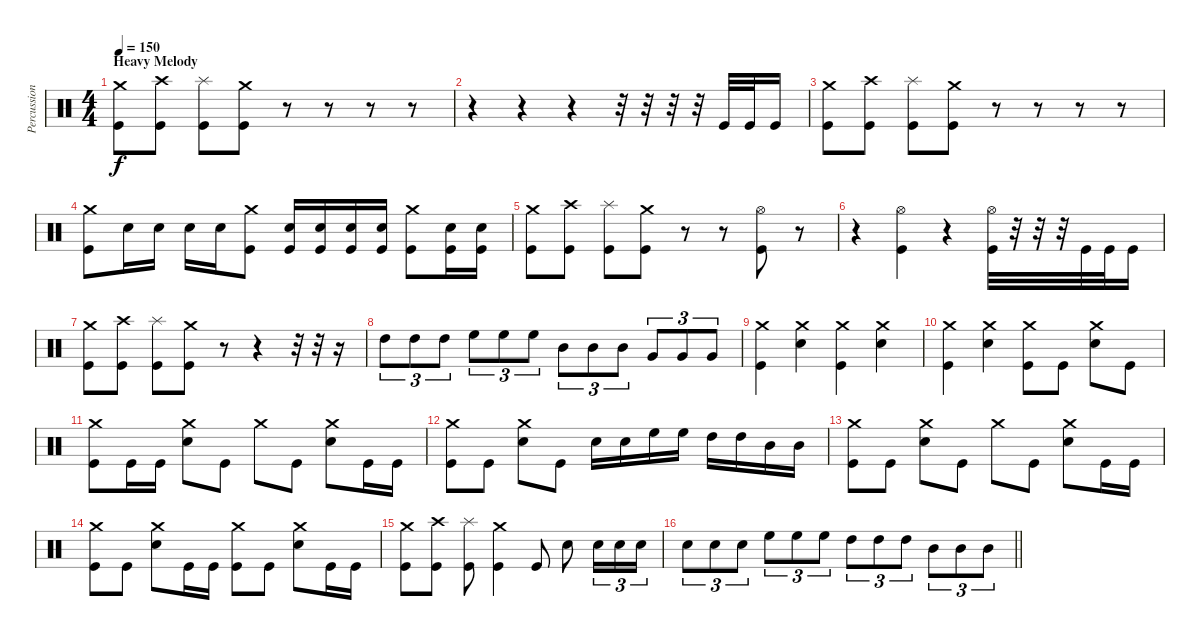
\track ("Percussion" "Percussion") {instrument percussion}
\staff {score}
\articulation defaults
\ts (4 4)
\section ("" "Heavy Melody")
\tempo 150
\clef neutral
\ks c
("Crash medium (hit)" "Kick (hit)").8{dy f} ("Crash high (hit)" "Kick (hit)").8 ("Splash (hit)" "Kick (hit)").8 ("Crash medium (hit)" "Kick (hit)").8 r.8 r.8 r.8 r.8 |
r.4 r.4 r.4 r.32 r.32 r.32 r.32 "Kick (hit)".32 "Kick (hit)".32 "Kick (hit)".16 |
("Crash medium (hit)" "Kick (hit)").8 ("Crash high (hit)" "Kick (hit)").8 ("Splash (hit)" "Kick (hit)").8 ("Crash medium (hit)" "Kick (hit)").8 r.8 r.8 r.8 r.8 |
("Crash medium (hit)" "Kick (hit)").8 "Snare (hit) 2".16 "Snare (hit) 2".16 "Snare (hit) 2".16 "Snare (hit) 2".16 ("Crash medium (hit)" "Kick (hit)").8 ("Snare (hit) 2" "Kick (hit)").16 ("Snare (hit) 2" "Kick (hit)").16 ("Snare (hit) 2" "Kick (hit)").16 ("Snare (hit) 2" "Kick (hit)").16 ("Crash medium (hit)" "Kick (hit)").8 ("Snare (hit) 2" "Kick (hit)").16 ("Snare (hit) 2" "Kick (hit)").16 |
("Crash medium (hit)" "Kick (hit)").8 ("Crash high (hit)" "Kick (hit)").8 ("Splash (hit)" "Kick (hit)").8 ("Crash medium (hit)" "Kick (hit)").8 r.8 r.8 ("Hi-Hat (open)" "Kick (hit)").8 r.8 |
r.4 ("Hi-Hat (open)" "Kick (hit)").4 r.4 ("Hi-Hat (open)" "Kick (hit)").32 r.32 r.32 r.32 "Kick (hit)".32 "Kick (hit)".32 "Kick (hit)".16 |
("Crash medium (hit)" "Kick (hit)").8 ("Crash high (hit)" "Kick (hit)").8 ("Splash (hit)" "Kick (hit)").8 ("Crash medium (hit)" "Kick (hit)").8 r.8 r.4 r.32 r.32 r.16 |
"High Tom (hit)".8{tu (3 2)} "High Tom (hit)".8{tu (3 2)} "High Tom (hit)".8{tu (3 2)} "High Floor Tom (hit)".8{tu (3 2)} "High Floor Tom (hit)".8{tu (3 2)} "High Floor Tom (hit)".8{tu (3 2)} "Mid Tom (hit)".8{tu (3 2)} "Mid Tom (hit)".8{tu (3 2)} "Mid Tom (hit)".8{tu (3 2)} "Very Low Tom (hit)".8{tu (3 2)} "Very Low Tom (hit)".8{tu (3 2)} "Very Low Tom (hit)".8{tu (3 2)} |
("Crash medium (hit)" "Kick (hit)").4 ("Crash medium (hit)" "Snare (hit) 2").4 ("Crash medium (hit)" "Kick (hit)").4 ("Crash medium (hit)" "Snare (hit) 2").4 |
("Crash medium (hit)" "Kick (hit)").4 ("Crash medium (hit)" "Snare (hit) 2").4 ("Crash medium (hit)" "Kick (hit)").8 "Kick (hit)".8 ("Crash medium (hit)" "Snare (hit) 2").8 "Kick (hit)".8 |
("Crash medium (hit)" "Kick (hit)").8 "Kick (hit)".16 "Kick (hit)".16 ("Crash medium (hit)" "Snare (hit) 2").8 "Kick (hit)".8 "Crash medium (hit)".8 "Kick (hit)".8 ("Crash medium (hit)" "Snare (hit) 2").8 "Kick (hit)".16 "Kick (hit)".16 |
("Crash medium (hit)" "Kick (hit)").8 "Kick (hit)".8 ("Crash medium (hit)" "Snare (hit) 2").8 "Kick (hit)".8 "Snare (hit) 2".16 "Snare (hit) 2".16 "High Floor Tom (hit)".16 "High Floor Tom (hit)".16 "High Tom (hit)".16 "High Tom (hit)".16 "Mid Tom (hit)".16 "Mid Tom (hit)".16 |
("Crash medium (hit)" "Kick (hit)").8 "Kick (hit)".8 ("Crash medium (hit)" "Snare (hit) 2").8 "Kick (hit)".8 "Crash medium (hit)".8 "Kick (hit)".8 ("Crash medium (hit)" "Snare (hit) 2").8 "Kick (hit)".16 "Kick (hit)".16 |
("Crash medium (hit)" "Kick (hit)").8 "Kick (hit)".8 ("Crash medium (hit)" "Snare (hit) 2").8 "Kick (hit)".16 "Kick (hit)".16 ("Crash medium (hit)" "Kick (hit)").8 "Kick (hit)".8 ("Crash medium (hit)" "Snare (hit) 2").8 "Kick (hit)".16 "Kick (hit)".16 |
("Crash medium (hit)" "Kick (hit)").8 ("Crash high (hit)" "Kick (hit)").8 ("Splash (hit)" "Kick (hit)").8 ("Crash medium (hit)" "Kick (hit)").4 "Kick (hit)".8 "Snare (hit) 2".8 "Snare (hit) 2".16{tu (3 2)} "Snare (hit) 2".16{tu (3 2)} "Snare (hit) 2".16{tu (3 2)} |
\barLineRight lightlight "Snare (hit) 2".8{tu (3 2)} "Snare (hit) 2".8{tu (3 2)} "Snare (hit) 2".8{tu (3 2)} "High Floor Tom (hit)".8{tu (3 2)} "High Floor Tom (hit)".8{tu (3 2)} "High Floor Tom (hit)".8{tu (3 2)} "High Tom (hit)".8{tu (3 2)} "High Tom (hit)".8{tu (3 2)} "High Tom (hit)".8{tu (3 2)} "Mid Tom (hit)".8{tu (3 2)} "Mid Tom (hit)".8{tu (3 2)} "Mid Tom (hit)".8{tu (3 2)}
